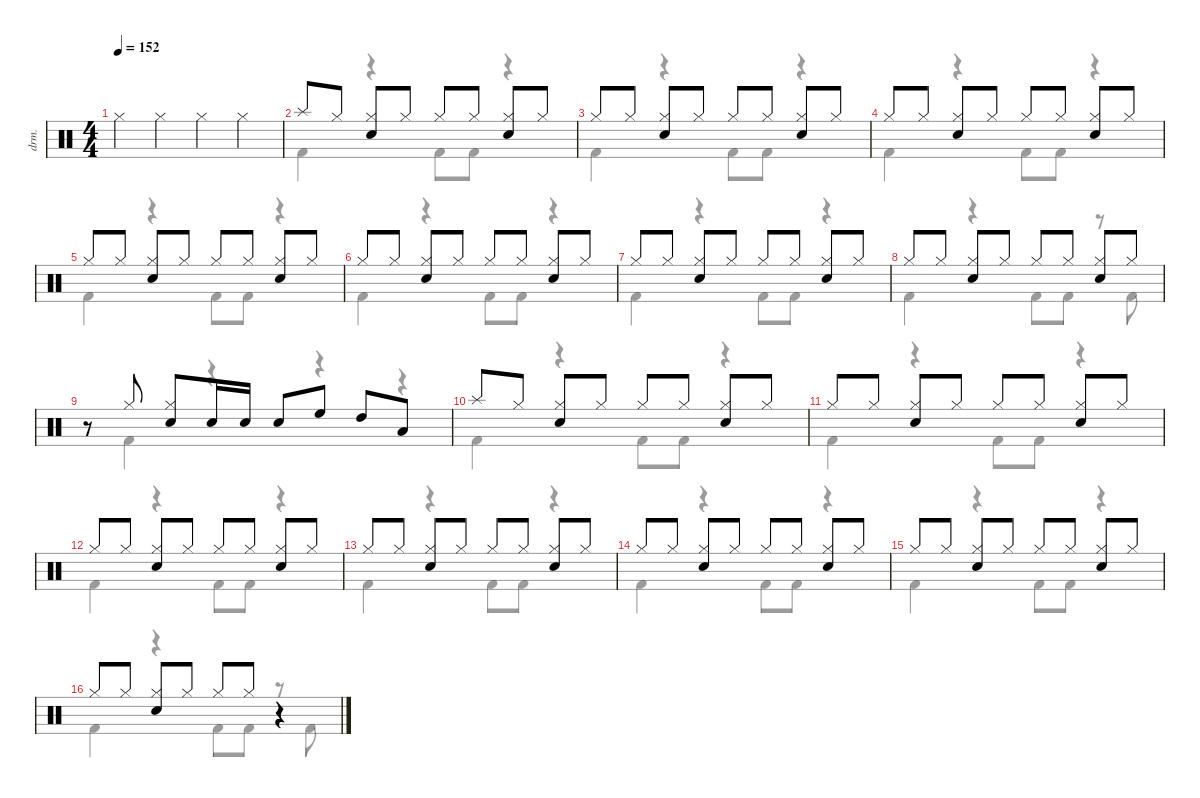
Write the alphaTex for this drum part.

\defaultSystemsLayout 4
\hideDynamics
\bracketExtendMode nobrackets
\track ("Drumkit" "drm.") {instrument percussion}
\staff {score}
\articulation defaults
\voice
\ts (4 4)
\tempo 152
\clef neutral
\ks c "Hi-Hat (closed)".4{dy mf beam Down} "Hi-Hat (closed)".4{beam Down} "Hi-Hat (closed)".4{beam Down} "Hi-Hat (closed)".4{beam Down}
|
"Splash (hit)".8{beam Up} "Hi-Hat (closed)".8{beam Up} ("Hi-Hat (closed)" "Snare (hit) 2").8{beam Up} "Hi-Hat (closed)".8{beam Up} "Hi-Hat (closed)".8{beam Up} "Hi-Hat (closed)".8{beam Up} ("Hi-Hat (closed)" "Snare (hit) 2").8{beam Up} "Hi-Hat (closed)".8{beam Up} |
"Hi-Hat (closed)".8{beam Up} "Hi-Hat (closed)".8{beam Up} ("Hi-Hat (closed)" "Snare (hit) 2").8{beam Up} "Hi-Hat (closed)".8{beam Up} "Hi-Hat (closed)".8{beam Up} "Hi-Hat (closed)".8{beam Up} ("Hi-Hat (closed)" "Snare (hit) 2").8{beam Up} "Hi-Hat (closed)".8{beam Up} |
"Hi-Hat (closed)".8{beam Up} "Hi-Hat (closed)".8{beam Up} ("Hi-Hat (closed)" "Snare (hit) 2").8{beam Up} "Hi-Hat (closed)".8{beam Up} "Hi-Hat (closed)".8{beam Up} "Hi-Hat (closed)".8{beam Up} ("Hi-Hat (closed)" "Snare (hit) 2").8{beam Up} "Hi-Hat (closed)".8{beam Up} |
"Hi-Hat (closed)".8{beam Up} "Hi-Hat (closed)".8{beam Up} ("Hi-Hat (closed)" "Snare (hit) 2").8{beam Up} "Hi-Hat (closed)".8{beam Up} "Hi-Hat (closed)".8{beam Up} "Hi-Hat (closed)".8{beam Up} ("Hi-Hat (closed)" "Snare (hit) 2").8{beam Up} "Hi-Hat (closed)".8{beam Up} |
"Hi-Hat (closed)".8{beam Up} "Hi-Hat (closed)".8{beam Up} ("Hi-Hat (closed)" "Snare (hit) 2").8{beam Up} "Hi-Hat (closed)".8{beam Up} "Hi-Hat (closed)".8{beam Up} "Hi-Hat (closed)".8{beam Up} ("Hi-Hat (closed)" "Snare (hit) 2").8{beam Up} "Hi-Hat (closed)".8{beam Up} |
"Hi-Hat (closed)".8{beam Up} "Hi-Hat (closed)".8{beam Up} ("Hi-Hat (closed)" "Snare (hit) 2").8{beam Up} "Hi-Hat (closed)".8{beam Up} "Hi-Hat (closed)".8{beam Up} "Hi-Hat (closed)".8{beam Up} ("Hi-Hat (closed)" "Snare (hit) 2").8{beam Up} "Hi-Hat (closed)".8{beam Up} |
"Hi-Hat (closed)".8{beam Up} "Hi-Hat (closed)".8{beam Up} ("Hi-Hat (closed)" "Snare (hit) 2").8{beam Up} "Hi-Hat (closed)".8{beam Up} "Hi-Hat (closed)".8{beam Up} "Hi-Hat (closed)".8{beam Up} ("Hi-Hat (closed)" "Snare (hit) 2").8{beam Up} "Hi-Hat (closed)".8{beam Up} |
r.8{beam Up} "Hi-Hat (closed)".8{beam Up} ("Hi-Hat (closed)" "Snare (hit) 2").8{beam Up} "Snare (hit) 2".16{beam Up} "Snare (hit) 2".16{beam Up} "Snare (hit) 2".8{beam Up} "High Floor Tom (hit)".8{beam Up} "High Tom (hit)".8{beam Up} "Low Tom (hit)".8{beam Up} |
"Splash (hit)".8{beam Up} "Hi-Hat (closed)".8{beam Up} ("Hi-Hat (closed)" "Snare (hit) 2").8{beam Up} "Hi-Hat (closed)".8{beam Up} "Hi-Hat (closed)".8{beam Up} "Hi-Hat (closed)".8{beam Up} ("Hi-Hat (closed)" "Snare (hit) 2").8{beam Up} "Hi-Hat (closed)".8{beam Up} |
"Hi-Hat (closed)".8{beam Up} "Hi-Hat (closed)".8{beam Up} ("Hi-Hat (closed)" "Snare (hit) 2").8{beam Up} "Hi-Hat (closed)".8{beam Up} "Hi-Hat (closed)".8{beam Up} "Hi-Hat (closed)".8{beam Up} ("Hi-Hat (closed)" "Snare (hit) 2").8{beam Up} "Hi-Hat (closed)".8{beam Up} |
"Hi-Hat (closed)".8{beam Up} "Hi-Hat (closed)".8{beam Up} ("Hi-Hat (closed)" "Snare (hit) 2").8{beam Up} "Hi-Hat (closed)".8{beam Up} "Hi-Hat (closed)".8{beam Up} "Hi-Hat (closed)".8{beam Up} ("Hi-Hat (closed)" "Snare (hit) 2").8{beam Up} "Hi-Hat (closed)".8{beam Up} |
"Hi-Hat (closed)".8{beam Up} "Hi-Hat (closed)".8{beam Up} ("Hi-Hat (closed)" "Snare (hit) 2").8{beam Up} "Hi-Hat (closed)".8{beam Up} "Hi-Hat (closed)".8{beam Up} "Hi-Hat (closed)".8{beam Up} ("Hi-Hat (closed)" "Snare (hit) 2").8{beam Up} "Hi-Hat (closed)".8{beam Up} |
"Hi-Hat (closed)".8{beam Up} "Hi-Hat (closed)".8{beam Up} ("Hi-Hat (closed)" "Snare (hit) 2").8{beam Up} "Hi-Hat (closed)".8{beam Up} "Hi-Hat (closed)".8{beam Up} "Hi-Hat (closed)".8{beam Up} ("Hi-Hat (closed)" "Snare (hit) 2").8{beam Up} "Hi-Hat (closed)".8{beam Up} |
"Hi-Hat (closed)".8{beam Up} "Hi-Hat (closed)".8{beam Up} ("Hi-Hat (closed)" "Snare (hit) 2").8{beam Up} "Hi-Hat (closed)".8{beam Up} "Hi-Hat (closed)".8{beam Up} "Hi-Hat (closed)".8{beam Up} ("Hi-Hat (closed)" "Snare (hit) 2").8{beam Up} "Hi-Hat (closed)".8{beam Up} |
"Hi-Hat (closed)".8{beam Up} "Hi-Hat (closed)".8{beam Up} ("Hi-Hat (closed)" "Snare (hit) 2").8{beam Up} "Hi-Hat (closed)".8{beam Up} "Hi-Hat (closed)".8{beam Up} "Hi-Hat (closed)".8{beam Up} r.4{beam Up}
\voice
\clef neutral
\ottava regular
\simile none
\ks c
|
"Kick (hit) 2".4{beam Down} r.4{beam Down} "Kick (hit) 2".8{beam Down} "Kick (hit) 2".8{beam Down} r.4{beam Down} |
"Kick (hit) 2".4{beam Down} r.4{beam Down} "Kick (hit) 2".8{beam Down} "Kick (hit) 2".8{beam Down} r.4{beam Down} |
"Kick (hit) 2".4{beam Down} r.4{beam Down} "Kick (hit) 2".8{beam Down} "Kick (hit) 2".8{beam Down} r.4{beam Down} |
"Kick (hit) 2".4{beam Down} r.4{beam Down} "Kick (hit) 2".8{beam Down} "Kick (hit) 2".8{beam Down} r.4{beam Down} |
"Kick (hit) 2".4{beam Down} r.4{beam Down} "Kick (hit) 2".8{beam Down} "Kick (hit) 2".8{beam Down} r.4{beam Down} |
"Kick (hit) 2".4{beam Down} r.4{beam Down} "Kick (hit) 2".8{beam Down} "Kick (hit) 2".8{beam Down} r.4{beam Down} |
"Kick (hit) 2".4{beam Down} r.4{beam Down} "Kick (hit) 2".8{beam Down} "Kick (hit) 2".8{beam Down} r.8{beam Down} "Kick (hit) 2".8{beam Down} |
r.8{beam Down} "Kick (hit) 2".4{beam Down} r.4{beam Down} r.4{beam Down} r.4{beam Down} |
"Kick (hit) 2".4{beam Down} r.4{beam Down} "Kick (hit) 2".8{beam Down} "Kick (hit) 2".8{beam Down} r.4{beam Down} |
"Kick (hit) 2".4{beam Down} r.4{beam Down} "Kick (hit) 2".8{beam Down} "Kick (hit) 2".8{beam Down} r.4{beam Down} |
"Kick (hit) 2".4{beam Down} r.4{beam Down} "Kick (hit) 2".8{beam Down} "Kick (hit) 2".8{beam Down} r.4{beam Down} |
"Kick (hit) 2".4{beam Down} r.4{beam Down} "Kick (hit) 2".8{beam Down} "Kick (hit) 2".8{beam Down} r.4{beam Down} |
"Kick (hit) 2".4{beam Down} r.4{beam Down} "Kick (hit) 2".8{beam Down} "Kick (hit) 2".8{beam Down} r.4{beam Down} |
"Kick (hit) 2".4{beam Down} r.4{beam Down} "Kick (hit) 2".8{beam Down} "Kick (hit) 2".8{beam Down} r.4{beam Down} |
"Kick (hit) 2".4{beam Down} r.4{beam Down} "Kick (hit) 2".8{beam Down} "Kick (hit) 2".8{beam Down} r.8{beam Down} "Kick (hit) 2".8{beam Down}
